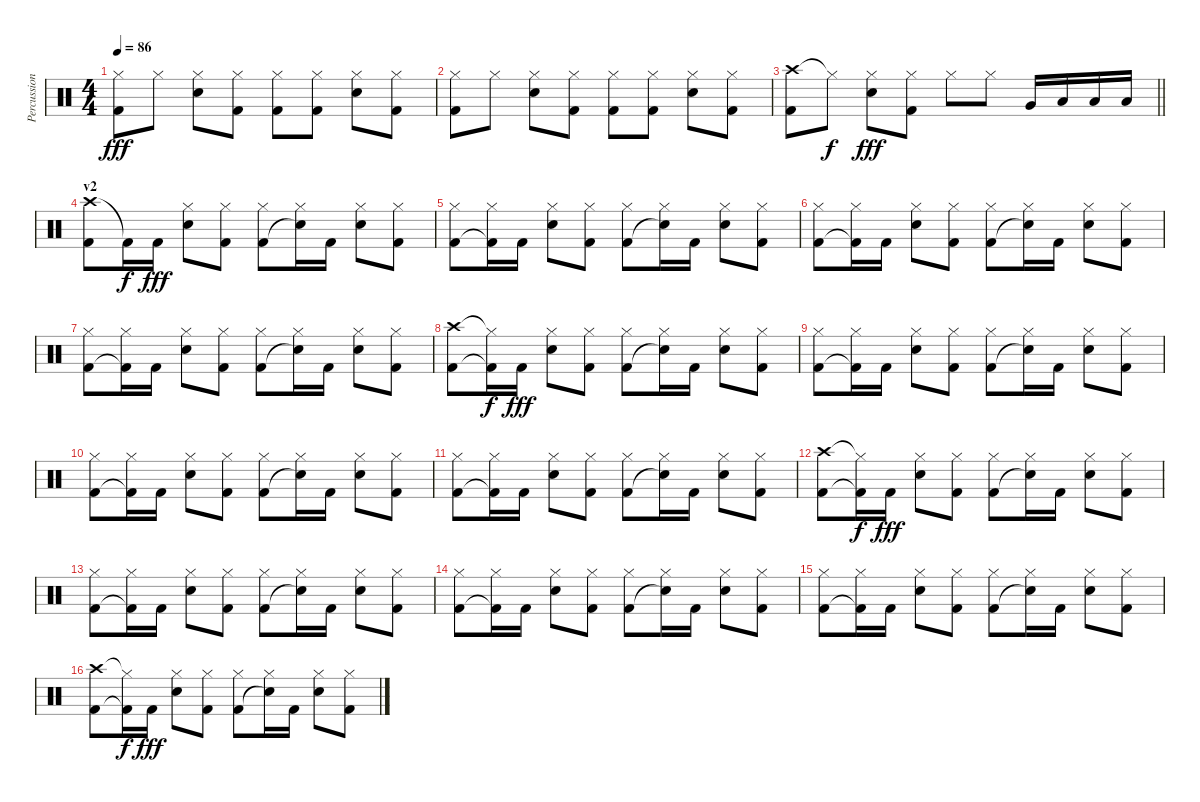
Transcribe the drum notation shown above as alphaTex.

\track ("Percussion" "Percussion") {instrument percussion}
\staff {score}
\articulation defaults
\ts (4 4)
\tempo 86
\clef neutral
\ks c
("Hi-Hat (closed)" "Kick (hit) 2").8{dy fff} "Hi-Hat (closed)".8 ("Hi-Hat (closed)" "Electric Snare (hit)").8 ("Hi-Hat (closed)" "Kick (hit) 2").8 ("Hi-Hat (closed)" "Kick (hit) 2").8 ("Hi-Hat (closed)" "Kick (hit) 2").8 ("Hi-Hat (closed)" "Electric Snare (hit)").8 ("Hi-Hat (closed)" "Kick (hit) 2").8 |
("Hi-Hat (closed)" "Kick (hit) 2").8 "Hi-Hat (closed)".8 ("Hi-Hat (closed)" "Electric Snare (hit)").8 ("Hi-Hat (closed)" "Kick (hit) 2").8 ("Hi-Hat (closed)" "Kick (hit) 2").8 ("Hi-Hat (closed)" "Kick (hit) 2").8 ("Hi-Hat (closed)" "Electric Snare (hit)").8 ("Hi-Hat (closed)" "Kick (hit) 2").8 |
\barLineRight lightlight
("Crash high (hit)" "Kick (hit) 2").8 "Hi-Hat (closed)"{t}.8{dy f} ("Hi-Hat (closed)" "Electric Snare (hit)").8{dy fff} ("Hi-Hat (closed)" "Kick (hit) 2").8 "Hi-Hat (closed)".8 "Hi-Hat (closed)".8 "Very Low Tom (hit)".16 "Low Floor Tom (hit)".16 "Low Tom (hit)".16 "Low Floor Tom (hit)".16 |
\section ("" "v2")
("Crash high (hit)" "Kick (hit) 2").8 "Kick (hit) 2"{t}.16{dy f} "Kick (hit) 2".16{dy fff} ("Hi-Hat (closed)" "Electric Snare (hit)").8 ("Hi-Hat (closed)" "Kick (hit) 2").8 ("Hi-Hat (closed)" "Kick (hit) 2").8 ("Hi-Hat (closed)" "Snare (hit)"{t}).16 "Kick (hit) 2".16 ("Hi-Hat (closed)" "Electric Snare (hit)").8 ("Hi-Hat (closed)" "Kick (hit) 2").8 |
("Hi-Hat (closed)" "Kick (hit) 2").8 ("Hi-Hat (closed)" "Kick (hit) 2"{t}).16 "Kick (hit) 2".16 ("Hi-Hat (closed)" "Electric Snare (hit)").8 ("Hi-Hat (closed)" "Kick (hit) 2").8 ("Hi-Hat (closed)" "Kick (hit) 2").8 ("Hi-Hat (closed)" "Snare (hit)"{t}).16 "Kick (hit) 2".16 ("Hi-Hat (closed)" "Electric Snare (hit)").8 ("Hi-Hat (closed)" "Kick (hit) 2").8 |
("Hi-Hat (closed)" "Kick (hit) 2").8 ("Hi-Hat (closed)" "Kick (hit) 2"{t}).16 "Kick (hit) 2".16 ("Hi-Hat (closed)" "Electric Snare (hit)").8 ("Hi-Hat (closed)" "Kick (hit) 2").8 ("Hi-Hat (closed)" "Kick (hit) 2").8 ("Hi-Hat (closed)" "Snare (hit)"{t}).16 "Kick (hit) 2".16 ("Hi-Hat (closed)" "Electric Snare (hit)").8 ("Hi-Hat (closed)" "Kick (hit) 2").8 |
("Hi-Hat (closed)" "Kick (hit) 2").8 ("Hi-Hat (closed)" "Kick (hit) 2"{t}).16 "Kick (hit) 2".16 ("Hi-Hat (closed)" "Electric Snare (hit)").8 ("Hi-Hat (closed)" "Kick (hit) 2").8 ("Hi-Hat (closed)" "Kick (hit) 2").8 ("Hi-Hat (closed)" "Snare (hit)"{t}).16 "Kick (hit) 2".16 ("Hi-Hat (closed)" "Electric Snare (hit)").8 ("Hi-Hat (closed)" "Kick (hit) 2").8 |
("Crash high (hit)" "Kick (hit) 2").8 ("Hi-Hat (closed)"{t} "Kick (hit) 2"{t}).16{dy f} "Kick (hit) 2".16{dy fff} ("Hi-Hat (closed)" "Electric Snare (hit)").8 ("Hi-Hat (closed)" "Kick (hit) 2").8 ("Hi-Hat (closed)" "Kick (hit) 2").8 ("Hi-Hat (closed)" "Snare (hit)"{t}).16 "Kick (hit) 2".16 ("Hi-Hat (closed)" "Electric Snare (hit)").8 ("Hi-Hat (closed)" "Kick (hit) 2").8 |
("Hi-Hat (closed)" "Kick (hit) 2").8 ("Hi-Hat (closed)" "Kick (hit) 2"{t}).16 "Kick (hit) 2".16 ("Hi-Hat (closed)" "Electric Snare (hit)").8 ("Hi-Hat (closed)" "Kick (hit) 2").8 ("Hi-Hat (closed)" "Kick (hit) 2").8 ("Hi-Hat (closed)" "Snare (hit)"{t}).16 "Kick (hit) 2".16 ("Hi-Hat (closed)" "Electric Snare (hit)").8 ("Hi-Hat (closed)" "Kick (hit) 2").8 |
("Hi-Hat (closed)" "Kick (hit) 2").8 ("Hi-Hat (closed)" "Kick (hit) 2"{t}).16 "Kick (hit) 2".16 ("Hi-Hat (closed)" "Electric Snare (hit)").8 ("Hi-Hat (closed)" "Kick (hit) 2").8 ("Hi-Hat (closed)" "Kick (hit) 2").8 ("Hi-Hat (closed)" "Snare (hit)"{t}).16 "Kick (hit) 2".16 ("Hi-Hat (closed)" "Electric Snare (hit)").8 ("Hi-Hat (closed)" "Kick (hit) 2").8 |
("Hi-Hat (closed)" "Kick (hit) 2").8 ("Hi-Hat (closed)" "Kick (hit) 2"{t}).16 "Kick (hit) 2".16 ("Hi-Hat (closed)" "Electric Snare (hit)").8 ("Hi-Hat (closed)" "Kick (hit) 2").8 ("Hi-Hat (closed)" "Kick (hit) 2").8 ("Hi-Hat (closed)" "Snare (hit)"{t}).16 "Kick (hit) 2".16 ("Hi-Hat (closed)" "Electric Snare (hit)").8 ("Hi-Hat (closed)" "Kick (hit) 2").8 |
("Crash high (hit)" "Kick (hit) 2").8 ("Hi-Hat (closed)"{t} "Kick (hit) 2"{t}).16{dy f} "Kick (hit) 2".16{dy fff} ("Hi-Hat (closed)" "Electric Snare (hit)").8 ("Hi-Hat (closed)" "Kick (hit) 2").8 ("Hi-Hat (closed)" "Kick (hit) 2").8 ("Hi-Hat (closed)" "Snare (hit)"{t}).16 "Kick (hit) 2".16 ("Hi-Hat (closed)" "Electric Snare (hit)").8 ("Hi-Hat (closed)" "Kick (hit) 2").8 |
("Hi-Hat (closed)" "Kick (hit) 2").8 ("Hi-Hat (closed)" "Kick (hit) 2"{t}).16 "Kick (hit) 2".16 ("Hi-Hat (closed)" "Electric Snare (hit)").8 ("Hi-Hat (closed)" "Kick (hit) 2").8 ("Hi-Hat (closed)" "Kick (hit) 2").8 ("Hi-Hat (closed)" "Snare (hit)"{t}).16 "Kick (hit) 2".16 ("Hi-Hat (closed)" "Electric Snare (hit)").8 ("Hi-Hat (closed)" "Kick (hit) 2").8 |
("Hi-Hat (closed)" "Kick (hit) 2").8 ("Hi-Hat (closed)" "Kick (hit) 2"{t}).16 "Kick (hit) 2".16 ("Hi-Hat (closed)" "Electric Snare (hit)").8 ("Hi-Hat (closed)" "Kick (hit) 2").8 ("Hi-Hat (closed)" "Kick (hit) 2").8 ("Hi-Hat (closed)" "Snare (hit)"{t}).16 "Kick (hit) 2".16 ("Hi-Hat (closed)" "Electric Snare (hit)").8 ("Hi-Hat (closed)" "Kick (hit) 2").8 |
("Hi-Hat (closed)" "Kick (hit) 2").8 ("Hi-Hat (closed)" "Kick (hit) 2"{t}).16 "Kick (hit) 2".16 ("Hi-Hat (closed)" "Electric Snare (hit)").8 ("Hi-Hat (closed)" "Kick (hit) 2").8 ("Hi-Hat (closed)" "Kick (hit) 2").8 ("Hi-Hat (closed)" "Snare (hit)"{t}).16 "Kick (hit) 2".16 ("Hi-Hat (closed)" "Electric Snare (hit)").8 ("Hi-Hat (closed)" "Kick (hit) 2").8 |
("Crash high (hit)" "Kick (hit) 2").8 ("Hi-Hat (closed)"{t} "Kick (hit) 2"{t}).16{dy f} "Kick (hit) 2".16{dy fff} ("Hi-Hat (closed)" "Electric Snare (hit)").8 ("Hi-Hat (closed)" "Kick (hit) 2").8 ("Hi-Hat (closed)" "Kick (hit) 2").8 ("Hi-Hat (closed)" "Snare (hit)"{t}).16 "Kick (hit) 2".16 ("Hi-Hat (closed)" "Electric Snare (hit)").8 ("Hi-Hat (closed)" "Kick (hit) 2").8
